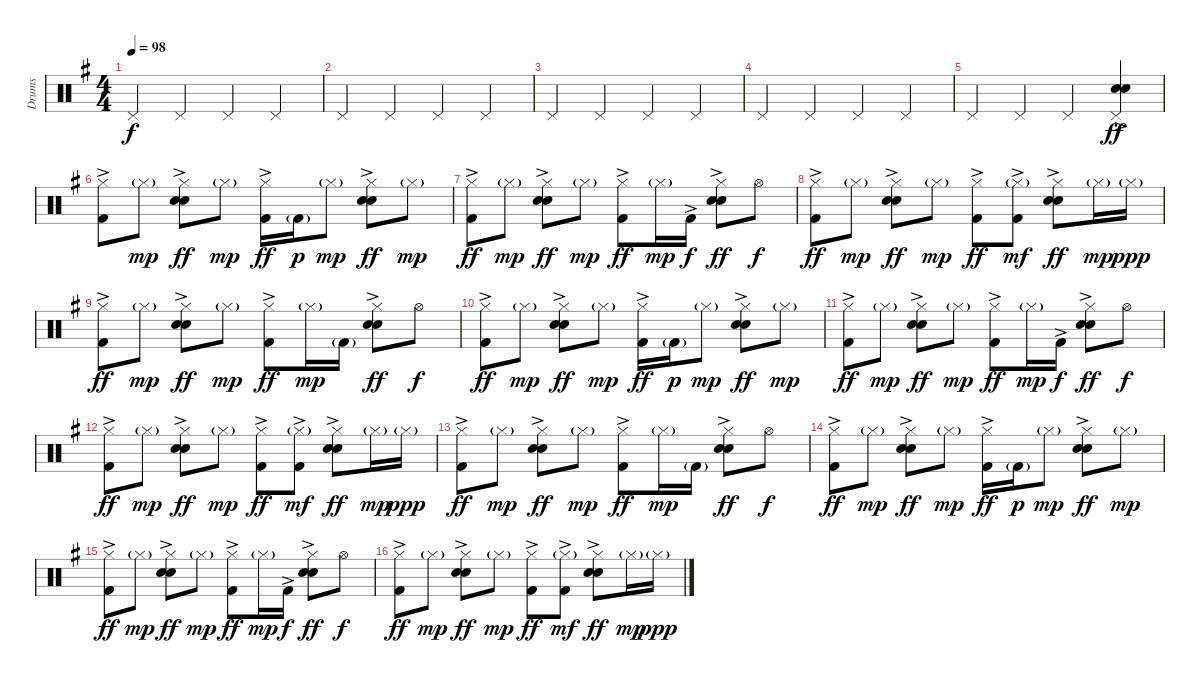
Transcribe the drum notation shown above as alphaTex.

\track ("Drums" "Drums") {instrument percussion}
\staff {score}
\articulation defaults
\ts (4 4)
\tempo 98
\clef neutral
\ks g "Pedal Hi-Hat (hit)".4{dy f} "Pedal Hi-Hat (hit)".4 "Pedal Hi-Hat (hit)".4 "Pedal Hi-Hat (hit)".4
|
"Pedal Hi-Hat (hit)".4 "Pedal Hi-Hat (hit)".4 "Pedal Hi-Hat (hit)".4 "Pedal Hi-Hat (hit)".4 |
"Pedal Hi-Hat (hit)".4 "Pedal Hi-Hat (hit)".4 "Pedal Hi-Hat (hit)".4 "Pedal Hi-Hat (hit)".4 |
"Pedal Hi-Hat (hit)".4 "Pedal Hi-Hat (hit)".4 "Pedal Hi-Hat (hit)".4 "Pedal Hi-Hat (hit)".4 |
"Pedal Hi-Hat (hit)".4 "Pedal Hi-Hat (hit)".4 "Pedal Hi-Hat (hit)".4 ("Pedal Hi-Hat (hit)" "Hand Clap (hit)" "Snare (hit) 2"{ac}).4{dy ff} |
("Hi-Hat (closed)" "Kick (hit) 2"{ac}).8 "Hi-Hat (closed)"{g}.8{dy mp} ("Hi-Hat (closed)" "Hand Clap (hit)" "Snare (hit) 2"{ac}).8{dy ff} "Hi-Hat (closed)"{g}.8{dy mp} ("Hi-Hat (closed)" "Kick (hit) 2"{ac}).16{dy ff} "Kick (hit) 2"{g}.16{dy p} "Hi-Hat (closed)"{g}.8{dy mp} ("Hi-Hat (closed)" "Hand Clap (hit)" "Snare (hit) 2"{ac}).8{dy ff} "Hi-Hat (closed)"{g}.8{dy mp} |
("Hi-Hat (closed)" "Kick (hit) 2"{ac}).8{dy ff} "Hi-Hat (closed)"{g}.8{dy mp} ("Hi-Hat (closed)" "Hand Clap (hit)" "Snare (hit) 2"{ac}).8{dy ff} "Hi-Hat (closed)"{g}.8{dy mp} ("Hi-Hat (closed)" "Kick (hit) 2"{ac}).8{dy ff} "Hi-Hat (closed)"{g}.16{dy mp} "Kick (hit) 2"{ac}.16{dy f} ("Hi-Hat (closed)" "Hand Clap (hit)" "Snare (hit) 2"{ac}).8{dy ff} "Hi-Hat (open)".8{dy f} |
("Hi-Hat (closed)" "Kick (hit) 2"{ac}).8{dy ff} "Hi-Hat (closed)"{g}.8{dy mp} ("Hi-Hat (closed)" "Hand Clap (hit)" "Snare (hit) 2"{ac}).8{dy ff} "Hi-Hat (closed)"{g}.8{dy mp} ("Hi-Hat (closed)" "Kick (hit) 2"{ac}).8{dy ff} ("Hi-Hat (closed)"{g} "Kick (hit) 2"{ac}).8{dy mf} ("Hi-Hat (closed)" "Hand Clap (hit)" "Snare (hit) 2"{ac}).8{dy ff} "Hi-Hat (closed)"{g}.16{dy mp} "Hi-Hat (closed)"{g}.16{dy ppp} |
("Hi-Hat (closed)" "Kick (hit) 2"{ac}).8{dy ff} "Hi-Hat (closed)"{g}.8{dy mp} ("Hi-Hat (closed)" "Hand Clap (hit)" "Snare (hit) 2"{ac}).8{dy ff} "Hi-Hat (closed)"{g}.8{dy mp} ("Hi-Hat (closed)" "Kick (hit) 2"{ac}).8{dy ff} "Hi-Hat (closed)"{g}.16{dy mp} "Kick (hit) 2"{g}.16 ("Hi-Hat (closed)" "Hand Clap (hit)" "Snare (hit) 2"{ac}).8{dy ff} "Hi-Hat (open)".8{dy f} |
("Hi-Hat (closed)" "Kick (hit) 2"{ac}).8{dy ff} "Hi-Hat (closed)"{g}.8{dy mp} ("Hi-Hat (closed)" "Hand Clap (hit)" "Snare (hit) 2"{ac}).8{dy ff} "Hi-Hat (closed)"{g}.8{dy mp} ("Hi-Hat (closed)" "Kick (hit) 2"{ac}).16{dy ff} "Kick (hit) 2"{g}.16{dy p} "Hi-Hat (closed)"{g}.8{dy mp} ("Hi-Hat (closed)" "Hand Clap (hit)" "Snare (hit) 2"{ac}).8{dy ff} "Hi-Hat (closed)"{g}.8{dy mp} |
("Hi-Hat (closed)" "Kick (hit) 2"{ac}).8{dy ff} "Hi-Hat (closed)"{g}.8{dy mp} ("Hi-Hat (closed)" "Hand Clap (hit)" "Snare (hit) 2"{ac}).8{dy ff} "Hi-Hat (closed)"{g}.8{dy mp} ("Hi-Hat (closed)" "Kick (hit) 2"{ac}).8{dy ff} "Hi-Hat (closed)"{g}.16{dy mp} "Kick (hit) 2"{ac}.16{dy f} ("Hi-Hat (closed)" "Hand Clap (hit)" "Snare (hit) 2"{ac}).8{dy ff} "Hi-Hat (open)".8{dy f} |
("Hi-Hat (closed)" "Kick (hit) 2"{ac}).8{dy ff} "Hi-Hat (closed)"{g}.8{dy mp} ("Hi-Hat (closed)" "Hand Clap (hit)" "Snare (hit) 2"{ac}).8{dy ff} "Hi-Hat (closed)"{g}.8{dy mp} ("Hi-Hat (closed)" "Kick (hit) 2"{ac}).8{dy ff} ("Hi-Hat (closed)"{g} "Kick (hit) 2"{ac}).8{dy mf} ("Hi-Hat (closed)" "Hand Clap (hit)" "Snare (hit) 2"{ac}).8{dy ff} "Hi-Hat (closed)"{g}.16{dy mp} "Hi-Hat (closed)"{g}.16{dy ppp} |
("Hi-Hat (closed)" "Kick (hit) 2"{ac}).8{dy ff} "Hi-Hat (closed)"{g}.8{dy mp} ("Hi-Hat (closed)" "Hand Clap (hit)" "Snare (hit) 2"{ac}).8{dy ff} "Hi-Hat (closed)"{g}.8{dy mp} ("Hi-Hat (closed)" "Kick (hit) 2"{ac}).8{dy ff} "Hi-Hat (closed)"{g}.16{dy mp} "Kick (hit) 2"{g}.16 ("Hi-Hat (closed)" "Hand Clap (hit)" "Snare (hit) 2"{ac}).8{dy ff} "Hi-Hat (open)".8{dy f} |
("Hi-Hat (closed)" "Kick (hit) 2"{ac}).8{dy ff} "Hi-Hat (closed)"{g}.8{dy mp} ("Hi-Hat (closed)" "Hand Clap (hit)" "Snare (hit) 2"{ac}).8{dy ff} "Hi-Hat (closed)"{g}.8{dy mp} ("Hi-Hat (closed)" "Kick (hit) 2"{ac}).16{dy ff} "Kick (hit) 2"{g}.16{dy p} "Hi-Hat (closed)"{g}.8{dy mp} ("Hi-Hat (closed)" "Hand Clap (hit)" "Snare (hit) 2"{ac}).8{dy ff} "Hi-Hat (closed)"{g}.8{dy mp} |
("Hi-Hat (closed)" "Kick (hit) 2"{ac}).8{dy ff} "Hi-Hat (closed)"{g}.8{dy mp} ("Hi-Hat (closed)" "Hand Clap (hit)" "Snare (hit) 2"{ac}).8{dy ff} "Hi-Hat (closed)"{g}.8{dy mp} ("Hi-Hat (closed)" "Kick (hit) 2"{ac}).8{dy ff} "Hi-Hat (closed)"{g}.16{dy mp} "Kick (hit) 2"{ac}.16{dy f} ("Hi-Hat (closed)" "Hand Clap (hit)" "Snare (hit) 2"{ac}).8{dy ff} "Hi-Hat (open)".8{dy f} |
("Hi-Hat (closed)" "Kick (hit) 2"{ac}).8{dy ff} "Hi-Hat (closed)"{g}.8{dy mp} ("Hi-Hat (closed)" "Hand Clap (hit)" "Snare (hit) 2"{ac}).8{dy ff} "Hi-Hat (closed)"{g}.8{dy mp} ("Hi-Hat (closed)" "Kick (hit) 2"{ac}).8{dy ff} ("Hi-Hat (closed)"{g} "Kick (hit) 2"{ac}).8{dy mf} ("Hi-Hat (closed)" "Hand Clap (hit)" "Snare (hit) 2"{ac}).8{dy ff} "Hi-Hat (closed)"{g}.16{dy mp} "Hi-Hat (closed)"{g}.16{dy ppp}
